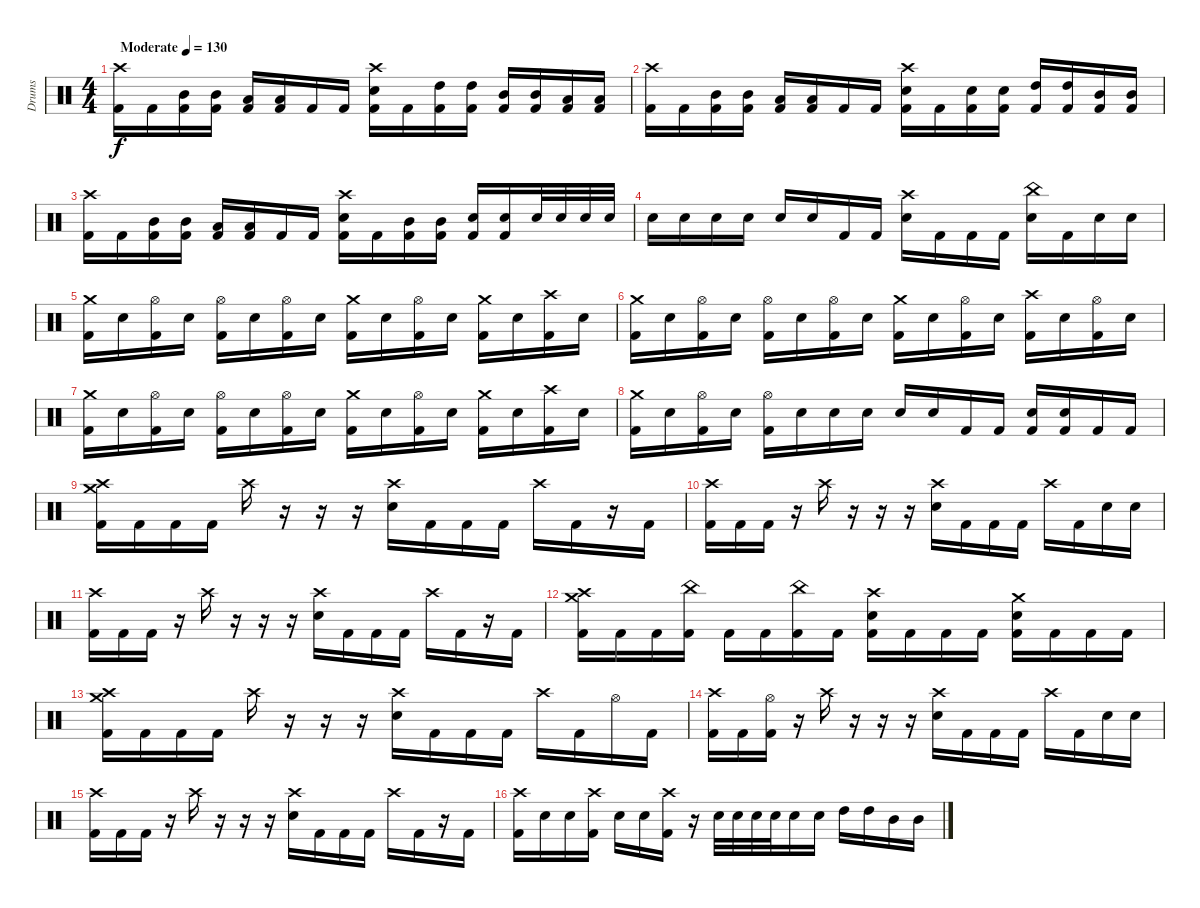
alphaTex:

\track ("Drums" "Drums") {instrument percussion}
\staff {score}
\articulation defaults
\ts (4 4)
\tempo (130 "Moderate")
\clef neutral
\ks c
("Crash high (hit)" "Kick (hit) 2").16{dy f} "Kick (hit) 2".16 ("Mid Tom (hit)" "Kick (hit) 2").16 ("Mid Tom (hit)" "Kick (hit) 2").16 ("Low Tom (hit)" "Kick (hit) 2").16 ("Low Tom (hit)" "Kick (hit) 2").16 "Kick (hit) 2".16 "Kick (hit) 2".16 ("Crash high (hit)" "Electric Snare (hit)" "Kick (hit) 2").16 "Kick (hit) 2".16 ("High Tom (hit)" "Kick (hit) 2").16 ("High Tom (hit)" "Kick (hit) 2").16 ("Mid Tom (hit)" "Kick (hit) 2").16 ("Mid Tom (hit)" "Kick (hit) 2").16 ("Low Tom (hit)" "Kick (hit) 2").16 ("Low Tom (hit)" "Kick (hit) 2").16 |
("Crash high (hit)" "Kick (hit) 2").16 "Kick (hit) 2".16 ("Mid Tom (hit)" "Kick (hit) 2").16 ("Mid Tom (hit)" "Kick (hit) 2").16 ("Low Tom (hit)" "Kick (hit) 2").16 ("Low Tom (hit)" "Kick (hit) 2").16 "Kick (hit) 2".16 "Kick (hit) 2".16 ("Crash high (hit)" "Electric Snare (hit)" "Kick (hit) 2").16 "Kick (hit) 2".16 ("Electric Snare (hit)" "Kick (hit) 2").16 ("Electric Snare (hit)" "Kick (hit) 2").16 ("High Tom (hit)" "Kick (hit) 2").16 ("High Tom (hit)" "Kick (hit) 2").16 ("Mid Tom (hit)" "Kick (hit) 2").16 ("Mid Tom (hit)" "Kick (hit) 2").16 |
("Crash high (hit)" "Kick (hit) 2").16 "Kick (hit) 2".16 ("Mid Tom (hit)" "Kick (hit) 2").16 ("Mid Tom (hit)" "Kick (hit) 2").16 ("Low Tom (hit)" "Kick (hit) 2").16 ("Low Tom (hit)" "Kick (hit) 2").16 "Kick (hit) 2".16 "Kick (hit) 2".16 ("Crash high (hit)" "Electric Snare (hit)" "Kick (hit) 2").16 "Kick (hit) 2".16 ("Mid Tom (hit)" "Kick (hit) 2").16 ("Mid Tom (hit)" "Kick (hit) 2").16 ("Snare (hit)" "Kick (hit) 2").16 ("Snare (hit)" "Kick (hit) 2").16 "Electric Snare (hit)".32 "Electric Snare (hit)".32 "Electric Snare (hit)".32 "Electric Snare (hit)".32 |
"Electric Snare (hit)".16 "Electric Snare (hit)".16 "Electric Snare (hit)".16 "Electric Snare (hit)".16 "Electric Snare (hit)".16 "Electric Snare (hit)".16 "Kick (hit) 2".16 "Kick (hit) 2".16 ("Crash high (hit)" "Electric Snare (hit)").16 "Kick (hit) 2".16 "Kick (hit) 2".16 "Kick (hit) 2".16 ("China (hit)" "Electric Snare (hit)").16 "Kick (hit) 2".16 "Electric Snare (hit)".16 "Electric Snare (hit)".16 |
("Crash medium (hit)" "Kick (hit) 2").16 "Electric Snare (hit)".16 ("Hi-Hat (open)" "Kick (hit) 2").16 "Electric Snare (hit)".16 ("Hi-Hat (open)" "Kick (hit) 2").16 "Electric Snare (hit)".16 ("Hi-Hat (open)" "Kick (hit) 2").16 "Electric Snare (hit)".16 ("Crash medium (hit)" "Kick (hit) 2").16 "Electric Snare (hit)".16 ("Hi-Hat (open)" "Kick (hit) 2").16 "Electric Snare (hit)".16 ("Crash medium (hit)" "Kick (hit) 2").16 "Electric Snare (hit)".16 ("Crash high (hit)" "Kick (hit) 2").16 "Electric Snare (hit)".16 |
("Crash medium (hit)" "Kick (hit) 2").16 "Electric Snare (hit)".16 ("Hi-Hat (open)" "Kick (hit) 2").16 "Electric Snare (hit)".16 ("Hi-Hat (open)" "Kick (hit) 2").16 "Electric Snare (hit)".16 ("Hi-Hat (open)" "Kick (hit) 2").16 "Electric Snare (hit)".16 ("Crash medium (hit)" "Kick (hit) 2").16 "Electric Snare (hit)".16 ("Hi-Hat (open)" "Kick (hit) 2").16 "Electric Snare (hit)".16 ("Crash high (hit)" "Kick (hit) 2").16 "Electric Snare (hit)".16 ("Hi-Hat (open)" "Kick (hit) 2").16 "Electric Snare (hit)".16 |
("Crash medium (hit)" "Kick (hit) 2").16 "Electric Snare (hit)".16 ("Hi-Hat (open)" "Kick (hit) 2").16 "Electric Snare (hit)".16 ("Hi-Hat (open)" "Kick (hit) 2").16 "Electric Snare (hit)".16 ("Hi-Hat (open)" "Kick (hit) 2").16 "Electric Snare (hit)".16 ("Crash medium (hit)" "Kick (hit) 2").16 "Electric Snare (hit)".16 ("Hi-Hat (open)" "Kick (hit) 2").16 "Electric Snare (hit)".16 ("Crash medium (hit)" "Kick (hit) 2").16 "Electric Snare (hit)".16 ("Crash high (hit)" "Kick (hit) 2").16 "Electric Snare (hit)".16 |
("Crash medium (hit)" "Kick (hit) 2").16 "Electric Snare (hit)".16 ("Hi-Hat (open)" "Kick (hit) 2").16 "Electric Snare (hit)".16 ("Hi-Hat (open)" "Kick (hit) 2").16 "Electric Snare (hit)".16 "Electric Snare (hit)".16 "Electric Snare (hit)".16 "Electric Snare (hit)".16 "Electric Snare (hit)".16 "Kick (hit) 2".16 "Kick (hit) 2".16 ("Electric Snare (hit)" "Kick (hit) 2").16 ("Electric Snare (hit)" "Kick (hit) 2").16 "Kick (hit) 2".16 "Kick (hit) 2".16 |
("Crash high (hit)" "Crash medium (hit)" "Kick (hit) 2").16 "Kick (hit) 2".16 "Kick (hit) 2".16 "Kick (hit) 2".16 "Crash high (hit)".16 r.16 r.16 r.16 ("Crash high (hit)" "Electric Snare (hit)").16 "Kick (hit) 2".16 "Kick (hit) 2".16 "Kick (hit) 2".16 "Crash high (hit)".16 "Kick (hit) 2".16 r.16 "Kick (hit) 2".16 |
("Crash high (hit)" "Kick (hit) 2").16 "Kick (hit) 2".16 "Kick (hit) 2".16 r.16 "Crash high (hit)".16 r.16 r.16 r.16 ("Crash high (hit)" "Electric Snare (hit)").16 "Kick (hit) 2".16 "Kick (hit) 2".16 "Kick (hit) 2".16 "Crash high (hit)".16 "Kick (hit) 2".16 "Electric Snare (hit)".16 "Electric Snare (hit)".16 |
("Crash high (hit)" "Kick (hit) 2").16 "Kick (hit) 2".16 "Kick (hit) 2".16 r.16 "Crash high (hit)".16 r.16 r.16 r.16 ("Crash high (hit)" "Electric Snare (hit)").16 "Kick (hit) 2".16 "Kick (hit) 2".16 "Kick (hit) 2".16 "Crash high (hit)".16 "Kick (hit) 2".16 r.16 "Kick (hit) 2".16 |
("Crash high (hit)" "Crash medium (hit)" "Kick (hit) 2").16 "Kick (hit) 2".16 "Kick (hit) 2".16 ("China (hit)" "Kick (hit) 2").16 "Kick (hit) 2".16 "Kick (hit) 2".16 ("China (hit)" "Kick (hit) 2").16 "Kick (hit) 2".16 ("Crash high (hit)" "Electric Snare (hit)" "Kick (hit) 2").16 "Kick (hit) 2".16 "Kick (hit) 2".16 "Kick (hit) 2".16 ("Crash medium (hit)" "Electric Snare (hit)" "Kick (hit) 2").16 "Kick (hit) 2".16 "Kick (hit) 2".16 "Kick (hit) 2".16 |
("Crash high (hit)" "Crash medium (hit)" "Kick (hit) 2").16 "Kick (hit) 2".16 "Kick (hit) 2".16 "Kick (hit) 2".16 "Crash high (hit)".16 r.16 r.16 r.16 ("Crash high (hit)" "Electric Snare (hit)").16 "Kick (hit) 2".16 "Kick (hit) 2".16 "Kick (hit) 2".16 "Crash high (hit)".16 "Kick (hit) 2".16 "Hi-Hat (open)".16 "Kick (hit) 2".16 |
("Crash high (hit)" "Kick (hit) 2").16 "Kick (hit) 2".16 ("Hi-Hat (open)" "Kick (hit) 2").16 r.16 "Crash high (hit)".16 r.16 r.16 r.16 ("Crash high (hit)" "Electric Snare (hit)").16 "Kick (hit) 2".16 "Kick (hit) 2".16 "Kick (hit) 2".16 "Crash high (hit)".16 "Kick (hit) 2".16 "Electric Snare (hit)".16 "Electric Snare (hit)".16 |
("Crash high (hit)" "Kick (hit) 2").16 "Kick (hit) 2".16 "Kick (hit) 2".16 r.16 "Crash high (hit)".16 r.16 r.16 r.16 ("Crash high (hit)" "Electric Snare (hit)").16 "Kick (hit) 2".16 "Kick (hit) 2".16 "Kick (hit) 2".16 "Crash high (hit)".16 "Kick (hit) 2".16 r.16 "Kick (hit) 2".16 |
("Crash high (hit)" "Kick (hit) 2").16 "Electric Snare (hit)".16 "Electric Snare (hit)".16 ("Crash high (hit)" "Kick (hit) 2").16 "Electric Snare (hit)".16 "Electric Snare (hit)".16 ("Crash high (hit)" "Kick (hit) 2").16 r.16 "Electric Snare (hit)".32 "Electric Snare (hit)".32 "Electric Snare (hit)".32 "Electric Snare (hit)".32 "Electric Snare (hit)".16 "Electric Snare (hit)".16 "High Tom (hit)".16 "High Tom (hit)".16 "Mid Tom (hit)".16 "Mid Tom (hit)".16
